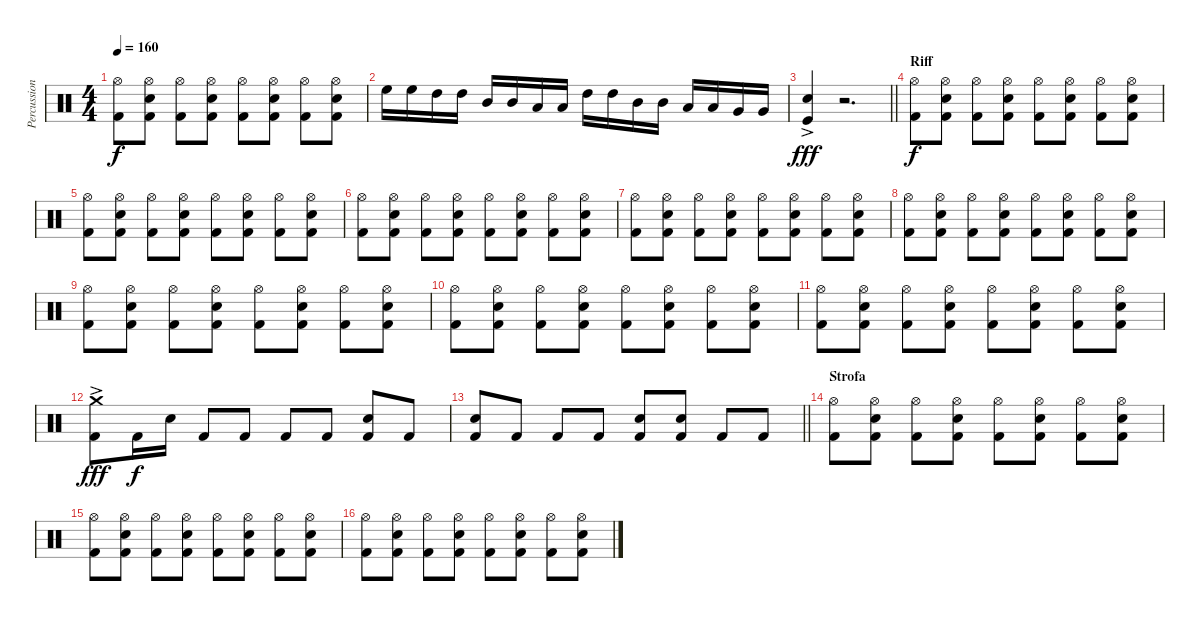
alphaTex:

\track ("Percussioni" "Percussion") {instrument percussion}
\staff {score}
\articulation defaults
\ts (4 4)
\tempo 160
\clef neutral
\ks c
("Hi-Hat (open)" "Kick (hit) 2").8{dy f} ("Hi-Hat (open)" "Snare (hit) 2" "Kick (hit) 2").8 ("Hi-Hat (open)" "Kick (hit) 2").8 ("Hi-Hat (open)" "Snare (hit) 2" "Kick (hit) 2").8 ("Hi-Hat (open)" "Kick (hit) 2").8 ("Hi-Hat (open)" "Snare (hit) 2" "Kick (hit) 2").8 ("Hi-Hat (open)" "Kick (hit) 2").8 ("Hi-Hat (open)" "Snare (hit) 2" "Kick (hit) 2").8 |
"High Floor Tom (hit)".16 "High Floor Tom (hit)".16 "High Tom (hit)".16 "High Tom (hit)".16 "Mid Tom (hit)".16 "Mid Tom (hit)".16 "Low Tom (hit)".16 "Low Tom (hit)".16 "High Tom (hit)".16 "High Tom (hit)".16 "Mid Tom (hit)".16 "Mid Tom (hit)".16 "Low Tom (hit)".16 "Low Tom (hit)".16 "Very Low Tom (hit)".16 "Very Low Tom (hit)".16 |
\barLineRight lightlight
("Snare (hit) 2"{ac} "Kick (hit)").4{dy fff} r.2{d} |
\section ("" "Riff")
("Hi-Hat (open)" "Kick (hit) 2").8{dy f} ("Hi-Hat (open)" "Snare (hit) 2" "Kick (hit) 2").8 ("Hi-Hat (open)" "Kick (hit) 2").8 ("Hi-Hat (open)" "Snare (hit) 2" "Kick (hit) 2").8 ("Hi-Hat (open)" "Kick (hit) 2").8 ("Hi-Hat (open)" "Snare (hit) 2" "Kick (hit) 2").8 ("Hi-Hat (open)" "Kick (hit) 2").8 ("Hi-Hat (open)" "Snare (hit) 2" "Kick (hit) 2").8 |
("Hi-Hat (open)" "Kick (hit) 2").8 ("Hi-Hat (open)" "Snare (hit) 2" "Kick (hit) 2").8 ("Hi-Hat (open)" "Kick (hit) 2").8 ("Hi-Hat (open)" "Snare (hit) 2" "Kick (hit) 2").8 ("Hi-Hat (open)" "Kick (hit) 2").8 ("Hi-Hat (open)" "Snare (hit) 2" "Kick (hit) 2").8 ("Hi-Hat (open)" "Kick (hit) 2").8 ("Hi-Hat (open)" "Snare (hit) 2" "Kick (hit) 2").8 |
("Hi-Hat (open)" "Kick (hit) 2").8 ("Hi-Hat (open)" "Snare (hit) 2" "Kick (hit) 2").8 ("Hi-Hat (open)" "Kick (hit) 2").8 ("Hi-Hat (open)" "Snare (hit) 2" "Kick (hit) 2").8 ("Hi-Hat (open)" "Kick (hit) 2").8 ("Hi-Hat (open)" "Snare (hit) 2" "Kick (hit) 2").8 ("Hi-Hat (open)" "Kick (hit) 2").8 ("Hi-Hat (open)" "Snare (hit) 2" "Kick (hit) 2").8 |
("Hi-Hat (open)" "Kick (hit) 2").8 ("Hi-Hat (open)" "Snare (hit) 2" "Kick (hit) 2").8 ("Hi-Hat (open)" "Kick (hit) 2").8 ("Hi-Hat (open)" "Snare (hit) 2" "Kick (hit) 2").8 ("Hi-Hat (open)" "Kick (hit) 2").8 ("Hi-Hat (open)" "Snare (hit) 2" "Kick (hit) 2").8 ("Hi-Hat (open)" "Kick (hit) 2").8 ("Hi-Hat (open)" "Snare (hit) 2" "Kick (hit) 2").8 |
("Hi-Hat (open)" "Kick (hit) 2").8 ("Hi-Hat (open)" "Snare (hit) 2" "Kick (hit) 2").8 ("Hi-Hat (open)" "Kick (hit) 2").8 ("Hi-Hat (open)" "Snare (hit) 2" "Kick (hit) 2").8 ("Hi-Hat (open)" "Kick (hit) 2").8 ("Hi-Hat (open)" "Snare (hit) 2" "Kick (hit) 2").8 ("Hi-Hat (open)" "Kick (hit) 2").8 ("Hi-Hat (open)" "Snare (hit) 2" "Kick (hit) 2").8 |
("Hi-Hat (open)" "Kick (hit) 2").8 ("Hi-Hat (open)" "Snare (hit) 2" "Kick (hit) 2").8 ("Hi-Hat (open)" "Kick (hit) 2").8 ("Hi-Hat (open)" "Snare (hit) 2" "Kick (hit) 2").8 ("Hi-Hat (open)" "Kick (hit) 2").8 ("Hi-Hat (open)" "Snare (hit) 2" "Kick (hit) 2").8 ("Hi-Hat (open)" "Kick (hit) 2").8 ("Hi-Hat (open)" "Snare (hit) 2" "Kick (hit) 2").8 |
("Hi-Hat (open)" "Kick (hit) 2").8 ("Hi-Hat (open)" "Snare (hit) 2" "Kick (hit) 2").8 ("Hi-Hat (open)" "Kick (hit) 2").8 ("Hi-Hat (open)" "Snare (hit) 2" "Kick (hit) 2").8 ("Hi-Hat (open)" "Kick (hit) 2").8 ("Hi-Hat (open)" "Snare (hit) 2" "Kick (hit) 2").8 ("Hi-Hat (open)" "Kick (hit) 2").8 ("Hi-Hat (open)" "Snare (hit) 2" "Kick (hit) 2").8 |
("Hi-Hat (open)" "Kick (hit) 2").8 ("Hi-Hat (open)" "Snare (hit) 2" "Kick (hit) 2").8 ("Hi-Hat (open)" "Kick (hit) 2").8 ("Hi-Hat (open)" "Snare (hit) 2" "Kick (hit) 2").8 ("Hi-Hat (open)" "Kick (hit) 2").8 ("Hi-Hat (open)" "Snare (hit) 2" "Kick (hit) 2").8 ("Hi-Hat (open)" "Kick (hit) 2").8 ("Hi-Hat (open)" "Snare (hit) 2" "Kick (hit) 2").8 |
("Crash medium (hit)"{ac} "Kick (hit) 2").8{dy fff} "Kick (hit) 2".16{dy f} "Snare (hit) 2".16 "Kick (hit) 2".8 "Kick (hit) 2".8 "Kick (hit) 2".8 "Kick (hit) 2".8 ("Snare (hit) 2" "Kick (hit) 2").8 "Kick (hit) 2".8 |
\barLineRight lightlight
("Snare (hit) 2" "Kick (hit) 2").8 "Kick (hit) 2".8 "Kick (hit) 2".8 "Kick (hit) 2".8 ("Snare (hit) 2" "Kick (hit) 2").8 ("Snare (hit) 2" "Kick (hit) 2").8 "Kick (hit) 2".8 "Kick (hit) 2".8 |
\section ("" "Strofa")
("Hi-Hat (open)" "Kick (hit) 2").8 ("Hi-Hat (open)" "Snare (hit) 2" "Kick (hit) 2").8 ("Hi-Hat (open)" "Kick (hit) 2").8 ("Hi-Hat (open)" "Snare (hit) 2" "Kick (hit) 2").8 ("Hi-Hat (open)" "Kick (hit) 2").8 ("Hi-Hat (open)" "Snare (hit) 2" "Kick (hit) 2").8 ("Hi-Hat (open)" "Kick (hit) 2").8 ("Hi-Hat (open)" "Snare (hit) 2" "Kick (hit) 2").8 |
("Hi-Hat (open)" "Kick (hit) 2").8 ("Hi-Hat (open)" "Snare (hit) 2" "Kick (hit) 2").8 ("Hi-Hat (open)" "Kick (hit) 2").8 ("Hi-Hat (open)" "Snare (hit) 2" "Kick (hit) 2").8 ("Hi-Hat (open)" "Kick (hit) 2").8 ("Hi-Hat (open)" "Snare (hit) 2" "Kick (hit) 2").8 ("Hi-Hat (open)" "Kick (hit) 2").8 ("Hi-Hat (open)" "Snare (hit) 2" "Kick (hit) 2").8 |
("Hi-Hat (open)" "Kick (hit) 2").8 ("Hi-Hat (open)" "Snare (hit) 2" "Kick (hit) 2").8 ("Hi-Hat (open)" "Kick (hit) 2").8 ("Hi-Hat (open)" "Snare (hit) 2" "Kick (hit) 2").8 ("Hi-Hat (open)" "Kick (hit) 2").8 ("Hi-Hat (open)" "Snare (hit) 2" "Kick (hit) 2").8 ("Hi-Hat (open)" "Kick (hit) 2").8 ("Hi-Hat (open)" "Snare (hit) 2" "Kick (hit) 2").8
